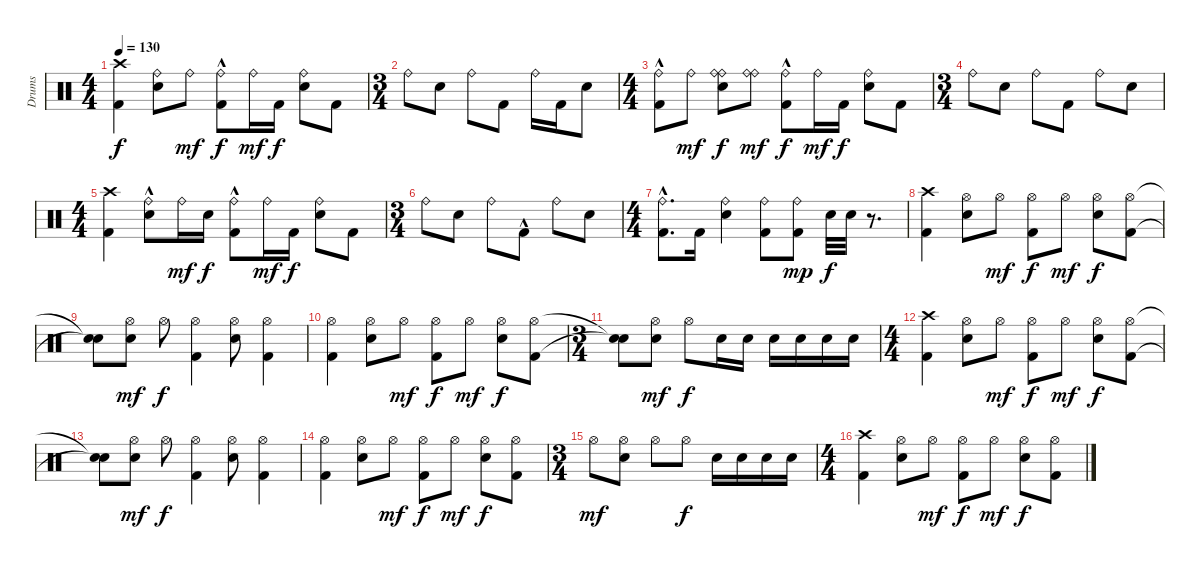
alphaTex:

\track ("Drums" "Drums") {instrument percussion}
\staff {score}
\articulation defaults
\ts (4 4)
\tempo 130
\clef neutral
\ks c
("Crash high (hit)" "Kick (hit) 2").4{dy f} ("Electric Snare (hit)" "Ride (bell)").8 "Ride (bell)".8{dy mf} ("Kick (hit) 2"{hac} "Ride (bell)").8{dy f} "Ride (bell)".16{dy mf} "Kick (hit) 2".16{dy f} ("Ride (bell)" "Electric Snare (hit)").8 "Kick (hit) 2".8 |
\ts (3 4)
"Ride (bell)".8 "Electric Snare (hit)".8 "Ride (bell)".8 "Kick (hit) 2".8 "Ride (bell)".16 "Kick (hit) 2".16 "Electric Snare (hit)".8 |
\ts (4 4)
("Kick (hit) 2"{hac} "Ride (bell)").8 "Ride (bell)".8{dy mf} ("Electric Snare (hit)" "Ride (bell)" "Ride (bell)").8{dy f} ("Ride (bell)" "Ride (bell)").8{dy mf} ("Kick (hit) 2"{hac} "Ride (bell)").8{dy f} "Ride (bell)".16{dy mf} "Kick (hit) 2".16{dy f} ("Ride (bell)" "Electric Snare (hit)").8 "Kick (hit) 2".8 |
\ts (3 4)
"Ride (bell)".8 "Electric Snare (hit)".8 "Ride (bell)".8 "Kick (hit) 2".8 "Ride (bell)".8 "Electric Snare (hit)".8 |
\ts (4 4)
("Kick (hit) 2" "Crash high (hit)").4 ("Ride (bell)" "Electric Snare (hit)"{hac}).8 "Ride (bell)".16{dy mf} "Electric Snare (hit)".16{dy f} ("Kick (hit) 2"{hac} "Ride (bell)").8 "Ride (bell)".16{dy mf} "Kick (hit) 2".16{dy f} ("Ride (bell)" "Electric Snare (hit)").8 "Kick (hit) 2".8 |
\ts (3 4)
"Ride (bell)".8 "Electric Snare (hit)".8 "Ride (bell)".8 "Kick (hit) 2"{hac}.8 "Ride (bell)".8 "Electric Snare (hit)".8 |
\ts (4 4)
("Ride (bell)" "Kick (hit) 2"{hac}).8{d} "Kick (hit) 2".16 ("Ride (bell)" "Electric Snare (hit)").4 ("Kick (hit) 2" "Ride (bell)").8 ("Kick (hit) 2" "Ride (bell)").8{dy mp} "Electric Snare (hit)".32{dy f} "Electric Snare (hit)".32 r.8{d} |
("Kick (hit) 2" "Crash high (hit)").4 ("Electric Snare (hit)" "Hi-Hat (open)").8 "Hi-Hat (open)".8{dy mf} ("Kick (hit) 2" "Hi-Hat (open)").8{dy f} "Hi-Hat (open)".8{dy mf} ("Electric Snare (hit)" "Hi-Hat (open)").8{dy f} ("Kick (hit) 2" "Hi-Hat (open)").8 |
("Snare (hit)"{t} "Snare (hit)"{t}).8 ("Electric Snare (hit)" "Hi-Hat (open)").8{dy mf} "Hi-Hat (open)".8{dy f} ("Kick (hit) 2" "Hi-Hat (open)").4 ("Electric Snare (hit)" "Hi-Hat (open)").8 ("Hi-Hat (open)" "Kick (hit) 2").4 |
("Kick (hit) 2" "Hi-Hat (open)").4 ("Electric Snare (hit)" "Hi-Hat (open)").8 "Hi-Hat (open)".8{dy mf} ("Kick (hit) 2" "Hi-Hat (open)").8{dy f} "Hi-Hat (open)".8{dy mf} ("Electric Snare (hit)" "Hi-Hat (open)").8{dy f} ("Kick (hit) 2" "Hi-Hat (open)").8 |
\ts (3 4)
("Snare (hit)"{t} "Snare (hit)"{t}).8 ("Electric Snare (hit)" "Hi-Hat (open)").8{dy mf} "Hi-Hat (open)".8{dy f} "Electric Snare (hit)".16 "Electric Snare (hit)".16 "Electric Snare (hit)".16 "Electric Snare (hit)".16 "Electric Snare (hit)".16 "Electric Snare (hit)".16 |
\ts (4 4)
("Crash high (hit)" "Kick (hit) 2").4 ("Electric Snare (hit)" "Hi-Hat (open)").8 "Hi-Hat (open)".8{dy mf} ("Kick (hit) 2" "Hi-Hat (open)").8{dy f} "Hi-Hat (open)".8{dy mf} ("Electric Snare (hit)" "Hi-Hat (open)").8{dy f} ("Kick (hit) 2" "Hi-Hat (open)").8 |
("Snare (hit)"{t} "Snare (hit)"{t}).8 ("Electric Snare (hit)" "Hi-Hat (open)").8{dy mf} "Hi-Hat (open)".8{dy f} ("Kick (hit) 2" "Hi-Hat (open)").4 ("Electric Snare (hit)" "Hi-Hat (open)").8 ("Hi-Hat (open)" "Kick (hit) 2").4 |
("Kick (hit) 2" "Hi-Hat (open)").4 ("Electric Snare (hit)" "Hi-Hat (open)").8 "Hi-Hat (open)".8{dy mf} ("Kick (hit) 2" "Hi-Hat (open)").8{dy f} "Hi-Hat (open)".8{dy mf} ("Electric Snare (hit)" "Hi-Hat (open)").8{dy f} ("Kick (hit) 2" "Hi-Hat (open)").8 |
\ts (3 4)
"Hi-Hat (open)".8{dy mf} ("Electric Snare (hit)" "Hi-Hat (open)").8 "Hi-Hat (open)".8 "Hi-Hat (open)".8{dy f} "Electric Snare (hit)".16 "Electric Snare (hit)".16 "Electric Snare (hit)".16 "Electric Snare (hit)".16 |
\ts (4 4)
("Kick (hit) 2" "Crash high (hit)").4 ("Electric Snare (hit)" "Hi-Hat (open)").8 "Hi-Hat (open)".8{dy mf} ("Kick (hit) 2" "Hi-Hat (open)").8{dy f} "Hi-Hat (open)".8{dy mf} ("Electric Snare (hit)" "Hi-Hat (open)").8{dy f} ("Kick (hit) 2" "Hi-Hat (open)").8
